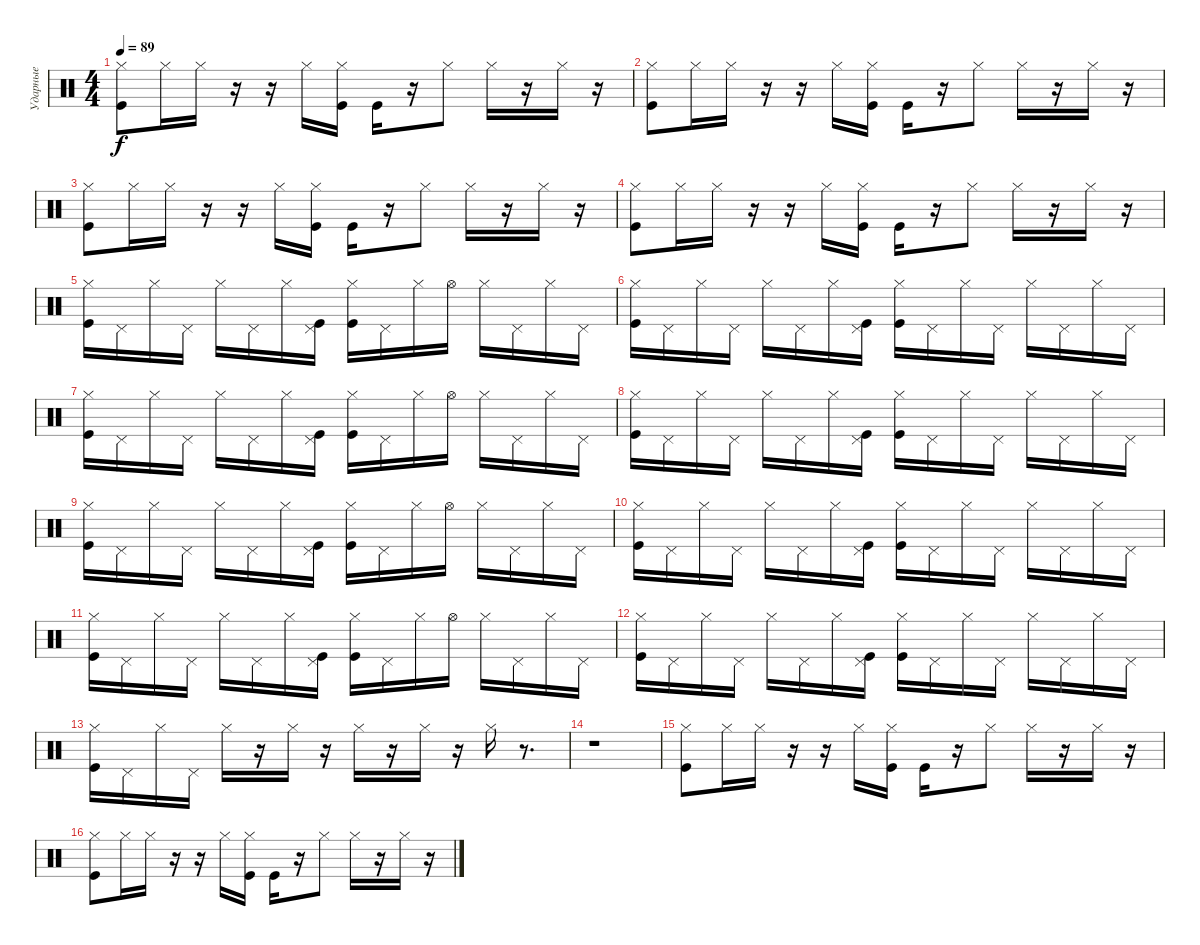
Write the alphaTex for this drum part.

\track ("Ударные" "Ударные") {instrument percussion}
\staff {score}
\articulation defaults
\ts (4 4)
\tempo 89
\clef neutral
\ks c
("Hi-Hat (closed)" "Kick (hit)").8{dy f} "Hi-Hat (closed)".16 "Hi-Hat (closed)".16 r.16 r.16 "Hi-Hat (closed)".16 ("Hi-Hat (closed)" "Kick (hit)").16 "Kick (hit)".16 r.16 "Hi-Hat (closed)".8 "Hi-Hat (closed)".16 r.16 "Hi-Hat (closed)".16 r.16 |
("Hi-Hat (closed)" "Kick (hit)").8 "Hi-Hat (closed)".16 "Hi-Hat (closed)".16 r.16 r.16 "Hi-Hat (closed)".16 ("Hi-Hat (closed)" "Kick (hit)").16 "Kick (hit)".16 r.16 "Hi-Hat (closed)".8 "Hi-Hat (closed)".16 r.16 "Hi-Hat (closed)".16 r.16 |
("Hi-Hat (closed)" "Kick (hit)").8 "Hi-Hat (closed)".16 "Hi-Hat (closed)".16 r.16 r.16 "Hi-Hat (closed)".16 ("Hi-Hat (closed)" "Kick (hit)").16 "Kick (hit)".16 r.16 "Hi-Hat (closed)".8 "Hi-Hat (closed)".16 r.16 "Hi-Hat (closed)".16 r.16 |
("Hi-Hat (closed)" "Kick (hit)").8 "Hi-Hat (closed)".16 "Hi-Hat (closed)".16 r.16 r.16 "Hi-Hat (closed)".16 ("Hi-Hat (closed)" "Kick (hit)").16 "Kick (hit)".16 r.16 "Hi-Hat (closed)".8 "Hi-Hat (closed)".16 r.16 "Hi-Hat (closed)".16 r.16 |
("Hi-Hat (closed)" "Kick (hit)").16 "Pedal Hi-Hat (hit)".16 "Hi-Hat (closed)".16 "Pedal Hi-Hat (hit)".16 "Hi-Hat (closed)".16 "Pedal Hi-Hat (hit)".16 "Hi-Hat (closed)".16 ("Kick (hit)" "Pedal Hi-Hat (hit)").16 ("Hi-Hat (closed)" "Kick (hit)").16 "Pedal Hi-Hat (hit)".16 "Hi-Hat (closed)".16 "Hi-Hat (open)".16 "Hi-Hat (closed)".16 "Pedal Hi-Hat (hit)".16 "Hi-Hat (closed)".16 "Pedal Hi-Hat (hit)".16 |
("Hi-Hat (closed)" "Kick (hit)").16 "Pedal Hi-Hat (hit)".16 "Hi-Hat (closed)".16 "Pedal Hi-Hat (hit)".16 "Hi-Hat (closed)".16 "Pedal Hi-Hat (hit)".16 "Hi-Hat (closed)".16 ("Kick (hit)" "Pedal Hi-Hat (hit)").16 ("Hi-Hat (closed)" "Kick (hit)").16 "Pedal Hi-Hat (hit)".16 "Hi-Hat (closed)".16 "Pedal Hi-Hat (hit)".16 "Hi-Hat (closed)".16 "Pedal Hi-Hat (hit)".16 "Hi-Hat (closed)".16 "Pedal Hi-Hat (hit)".16 |
("Hi-Hat (closed)" "Kick (hit)").16 "Pedal Hi-Hat (hit)".16 "Hi-Hat (closed)".16 "Pedal Hi-Hat (hit)".16 "Hi-Hat (closed)".16 "Pedal Hi-Hat (hit)".16 "Hi-Hat (closed)".16 ("Kick (hit)" "Pedal Hi-Hat (hit)").16 ("Hi-Hat (closed)" "Kick (hit)").16 "Pedal Hi-Hat (hit)".16 "Hi-Hat (closed)".16 "Hi-Hat (open)".16 "Hi-Hat (closed)".16 "Pedal Hi-Hat (hit)".16 "Hi-Hat (closed)".16 "Pedal Hi-Hat (hit)".16 |
("Hi-Hat (closed)" "Kick (hit)").16 "Pedal Hi-Hat (hit)".16 "Hi-Hat (closed)".16 "Pedal Hi-Hat (hit)".16 "Hi-Hat (closed)".16 "Pedal Hi-Hat (hit)".16 "Hi-Hat (closed)".16 ("Kick (hit)" "Pedal Hi-Hat (hit)").16 ("Hi-Hat (closed)" "Kick (hit)").16 "Pedal Hi-Hat (hit)".16 "Hi-Hat (closed)".16 "Pedal Hi-Hat (hit)".16 "Hi-Hat (closed)".16 "Pedal Hi-Hat (hit)".16 "Hi-Hat (closed)".16 "Pedal Hi-Hat (hit)".16 |
("Hi-Hat (closed)" "Kick (hit)").16 "Pedal Hi-Hat (hit)".16 "Hi-Hat (closed)".16 "Pedal Hi-Hat (hit)".16 "Hi-Hat (closed)".16 "Pedal Hi-Hat (hit)".16 "Hi-Hat (closed)".16 ("Kick (hit)" "Pedal Hi-Hat (hit)").16 ("Hi-Hat (closed)" "Kick (hit)").16 "Pedal Hi-Hat (hit)".16 "Hi-Hat (closed)".16 "Hi-Hat (open)".16 "Hi-Hat (closed)".16 "Pedal Hi-Hat (hit)".16 "Hi-Hat (closed)".16 "Pedal Hi-Hat (hit)".16 |
("Hi-Hat (closed)" "Kick (hit)").16 "Pedal Hi-Hat (hit)".16 "Hi-Hat (closed)".16 "Pedal Hi-Hat (hit)".16 "Hi-Hat (closed)".16 "Pedal Hi-Hat (hit)".16 "Hi-Hat (closed)".16 ("Kick (hit)" "Pedal Hi-Hat (hit)").16 ("Hi-Hat (closed)" "Kick (hit)").16 "Pedal Hi-Hat (hit)".16 "Hi-Hat (closed)".16 "Pedal Hi-Hat (hit)".16 "Hi-Hat (closed)".16 "Pedal Hi-Hat (hit)".16 "Hi-Hat (closed)".16 "Pedal Hi-Hat (hit)".16 |
("Hi-Hat (closed)" "Kick (hit)").16 "Pedal Hi-Hat (hit)".16 "Hi-Hat (closed)".16 "Pedal Hi-Hat (hit)".16 "Hi-Hat (closed)".16 "Pedal Hi-Hat (hit)".16 "Hi-Hat (closed)".16 ("Kick (hit)" "Pedal Hi-Hat (hit)").16 ("Hi-Hat (closed)" "Kick (hit)").16 "Pedal Hi-Hat (hit)".16 "Hi-Hat (closed)".16 "Hi-Hat (open)".16 "Hi-Hat (closed)".16 "Pedal Hi-Hat (hit)".16 "Hi-Hat (closed)".16 "Pedal Hi-Hat (hit)".16 |
("Hi-Hat (closed)" "Kick (hit)").16 "Pedal Hi-Hat (hit)".16 "Hi-Hat (closed)".16 "Pedal Hi-Hat (hit)".16 "Hi-Hat (closed)".16 "Pedal Hi-Hat (hit)".16 "Hi-Hat (closed)".16 ("Kick (hit)" "Pedal Hi-Hat (hit)").16 ("Hi-Hat (closed)" "Kick (hit)").16 "Pedal Hi-Hat (hit)".16 "Hi-Hat (closed)".16 "Pedal Hi-Hat (hit)".16 "Hi-Hat (closed)".16 "Pedal Hi-Hat (hit)".16 "Hi-Hat (closed)".16 "Pedal Hi-Hat (hit)".16 |
("Hi-Hat (closed)" "Kick (hit)").16 "Pedal Hi-Hat (hit)".16 "Hi-Hat (closed)".16 "Pedal Hi-Hat (hit)".16 "Hi-Hat (closed)".16 r.16 "Hi-Hat (closed)".16 r.16 "Hi-Hat (closed)".16 r.16 "Hi-Hat (closed)".16 r.16 "Hi-Hat (closed)".16 r.8{d} |
r.1 |
("Hi-Hat (closed)" "Kick (hit)").8 "Hi-Hat (closed)".16 "Hi-Hat (closed)".16 r.16 r.16 "Hi-Hat (closed)".16 ("Hi-Hat (closed)" "Kick (hit)").16 "Kick (hit)".16 r.16 "Hi-Hat (closed)".8 "Hi-Hat (closed)".16 r.16 "Hi-Hat (closed)".16 r.16 |
("Hi-Hat (closed)" "Kick (hit)").8 "Hi-Hat (closed)".16 "Hi-Hat (closed)".16 r.16 r.16 "Hi-Hat (closed)".16 ("Hi-Hat (closed)" "Kick (hit)").16 "Kick (hit)".16 r.16 "Hi-Hat (closed)".8 "Hi-Hat (closed)".16 r.16 "Hi-Hat (closed)".16 r.16
